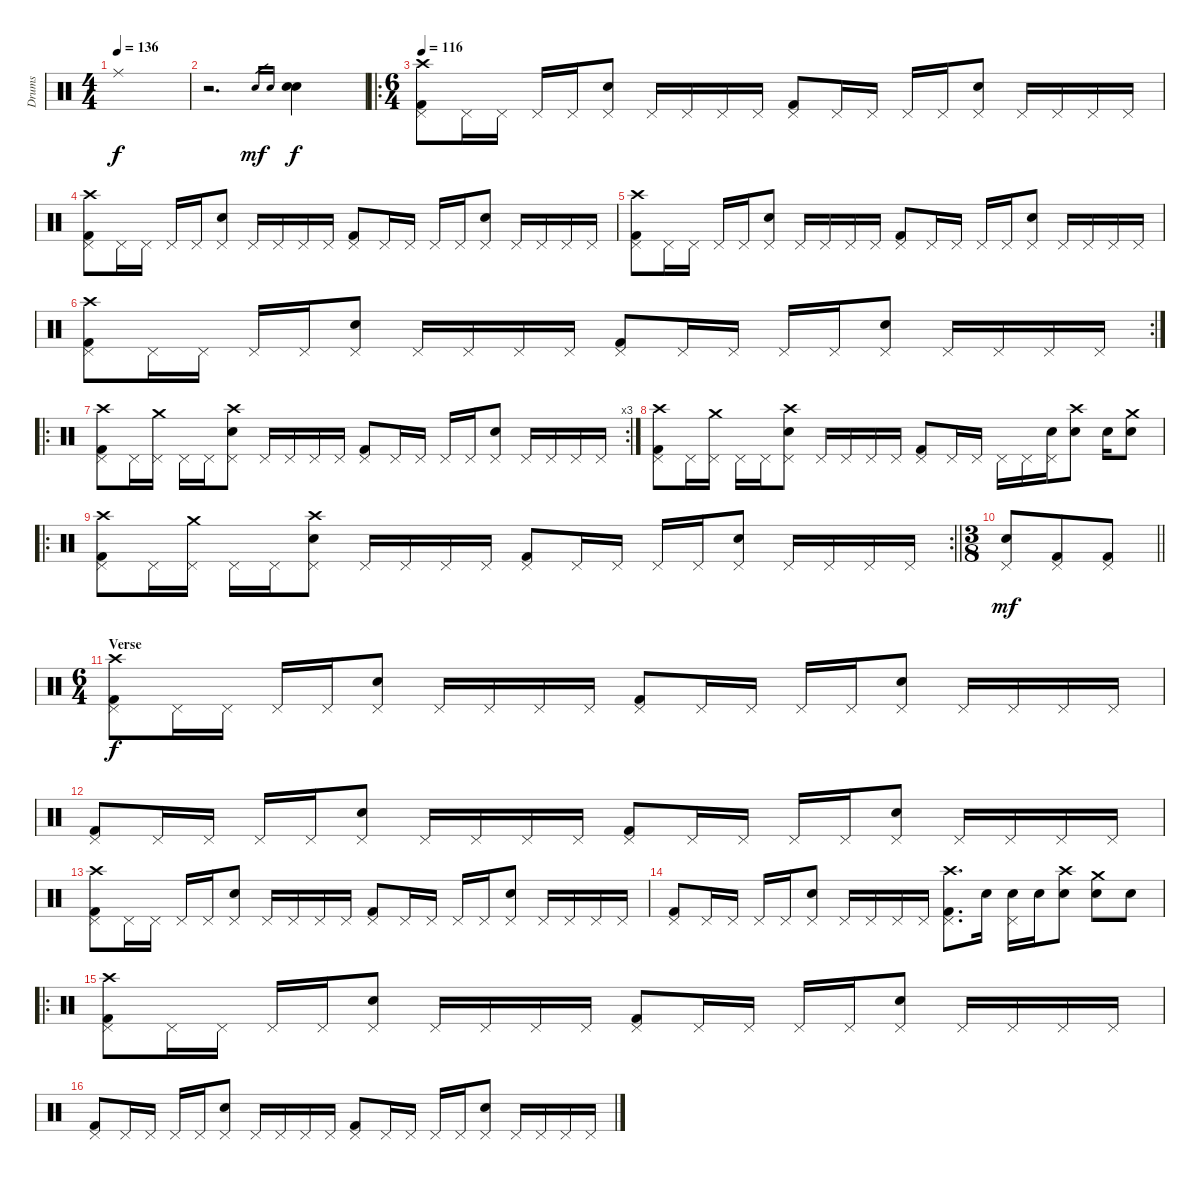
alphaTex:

\track ("Drums" "Drums") {instrument percussion}
\staff {score}
\articulation defaults
\ts (4 4)
\tempo 136
\clef neutral
\ks c "Ride (middle)".1{dy f}
|
r.2{d} "Snare (hit) 2".16{gr dy mf} "Snare (hit) 2".16{gr} ("Snare (hit) 2" "Snare (hit) 2").4{dy f} |
\ro
\ts (6 4)
\tempo 116
("Kick (hit) 2" "Pedal Hi-Hat (hit)" "Crash high (hit)").8 "Pedal Hi-Hat (hit)".16 "Pedal Hi-Hat (hit)".16 "Pedal Hi-Hat (hit)".16 "Pedal Hi-Hat (hit)".16 ("Snare (hit) 2" "Pedal Hi-Hat (hit)").8 "Pedal Hi-Hat (hit)".16 "Pedal Hi-Hat (hit)".16 "Pedal Hi-Hat (hit)".16 "Pedal Hi-Hat (hit)".16 ("Kick (hit) 2" "Pedal Hi-Hat (hit)").8 "Pedal Hi-Hat (hit)".16 "Pedal Hi-Hat (hit)".16 "Pedal Hi-Hat (hit)".16 "Pedal Hi-Hat (hit)".16 ("Snare (hit) 2" "Pedal Hi-Hat (hit)").8 "Pedal Hi-Hat (hit)".16 "Pedal Hi-Hat (hit)".16 "Pedal Hi-Hat (hit)".16 "Pedal Hi-Hat (hit)".16 |
("Kick (hit) 2" "Pedal Hi-Hat (hit)" "Crash high (hit)").8 "Pedal Hi-Hat (hit)".16 "Pedal Hi-Hat (hit)".16 "Pedal Hi-Hat (hit)".16 "Pedal Hi-Hat (hit)".16 ("Snare (hit) 2" "Pedal Hi-Hat (hit)").8 "Pedal Hi-Hat (hit)".16 "Pedal Hi-Hat (hit)".16 "Pedal Hi-Hat (hit)".16 "Pedal Hi-Hat (hit)".16 ("Kick (hit) 2" "Pedal Hi-Hat (hit)").8 "Pedal Hi-Hat (hit)".16 "Pedal Hi-Hat (hit)".16 "Pedal Hi-Hat (hit)".16 "Pedal Hi-Hat (hit)".16 ("Snare (hit) 2" "Pedal Hi-Hat (hit)").8 "Pedal Hi-Hat (hit)".16 "Pedal Hi-Hat (hit)".16 "Pedal Hi-Hat (hit)".16 "Pedal Hi-Hat (hit)".16 |
("Kick (hit) 2" "Pedal Hi-Hat (hit)" "Crash high (hit)").8 "Pedal Hi-Hat (hit)".16 "Pedal Hi-Hat (hit)".16 "Pedal Hi-Hat (hit)".16 "Pedal Hi-Hat (hit)".16 ("Snare (hit) 2" "Pedal Hi-Hat (hit)").8 "Pedal Hi-Hat (hit)".16 "Pedal Hi-Hat (hit)".16 "Pedal Hi-Hat (hit)".16 "Pedal Hi-Hat (hit)".16 ("Kick (hit) 2" "Pedal Hi-Hat (hit)").8 "Pedal Hi-Hat (hit)".16 "Pedal Hi-Hat (hit)".16 "Pedal Hi-Hat (hit)".16 "Pedal Hi-Hat (hit)".16 ("Snare (hit) 2" "Pedal Hi-Hat (hit)").8 "Pedal Hi-Hat (hit)".16 "Pedal Hi-Hat (hit)".16 "Pedal Hi-Hat (hit)".16 "Pedal Hi-Hat (hit)".16 |
\rc 2
("Kick (hit) 2" "Pedal Hi-Hat (hit)" "Crash high (hit)").8 "Pedal Hi-Hat (hit)".16 "Pedal Hi-Hat (hit)".16 "Pedal Hi-Hat (hit)".16 "Pedal Hi-Hat (hit)".16 ("Snare (hit) 2" "Pedal Hi-Hat (hit)").8 "Pedal Hi-Hat (hit)".16 "Pedal Hi-Hat (hit)".16 "Pedal Hi-Hat (hit)".16 "Pedal Hi-Hat (hit)".16 ("Kick (hit) 2" "Pedal Hi-Hat (hit)").8 "Pedal Hi-Hat (hit)".16 "Pedal Hi-Hat (hit)".16 "Pedal Hi-Hat (hit)".16 "Pedal Hi-Hat (hit)".16 ("Snare (hit) 2" "Pedal Hi-Hat (hit)").8 "Pedal Hi-Hat (hit)".16 "Pedal Hi-Hat (hit)".16 "Pedal Hi-Hat (hit)".16 "Pedal Hi-Hat (hit)".16 |
\ro
\rc 3
("Kick (hit) 2" "Pedal Hi-Hat (hit)" "Crash high (hit)").8 "Pedal Hi-Hat (hit)".16 ("Pedal Hi-Hat (hit)" "Crash medium (hit)").16 "Pedal Hi-Hat (hit)".16 "Pedal Hi-Hat (hit)".16 ("Snare (hit) 2" "Pedal Hi-Hat (hit)" "Crash high (hit)").8 "Pedal Hi-Hat (hit)".16 "Pedal Hi-Hat (hit)".16 "Pedal Hi-Hat (hit)".16 "Pedal Hi-Hat (hit)".16 ("Kick (hit) 2" "Pedal Hi-Hat (hit)").8 "Pedal Hi-Hat (hit)".16 "Pedal Hi-Hat (hit)".16 "Pedal Hi-Hat (hit)".16 "Pedal Hi-Hat (hit)".16 ("Snare (hit) 2" "Pedal Hi-Hat (hit)").8 "Pedal Hi-Hat (hit)".16 "Pedal Hi-Hat (hit)".16 "Pedal Hi-Hat (hit)".16 "Pedal Hi-Hat (hit)".16 |
("Kick (hit) 2" "Pedal Hi-Hat (hit)" "Crash high (hit)").8 "Pedal Hi-Hat (hit)".16 ("Pedal Hi-Hat (hit)" "Crash medium (hit)").16 "Pedal Hi-Hat (hit)".16 "Pedal Hi-Hat (hit)".16 ("Snare (hit) 2" "Pedal Hi-Hat (hit)" "Crash high (hit)").8 "Pedal Hi-Hat (hit)".16 "Pedal Hi-Hat (hit)".16 "Pedal Hi-Hat (hit)".16 "Pedal Hi-Hat (hit)".16 ("Kick (hit) 2" "Pedal Hi-Hat (hit)").8 "Pedal Hi-Hat (hit)".16 "Pedal Hi-Hat (hit)".16 "Pedal Hi-Hat (hit)".16 "Pedal Hi-Hat (hit)".16 ("Snare (hit) 2" "Pedal Hi-Hat (hit)").16 ("Snare (hit) 2" "Crash high (hit)").8 "Snare (hit) 2".16 ("Snare (hit) 2" "Crash medium (hit)").8 |
\ro
\rc 2
\barLineRight lightlight
("Kick (hit) 2" "Pedal Hi-Hat (hit)" "Crash high (hit)").8 "Pedal Hi-Hat (hit)".16 ("Pedal Hi-Hat (hit)" "Crash medium (hit)").16 "Pedal Hi-Hat (hit)".16 "Pedal Hi-Hat (hit)".16 ("Snare (hit) 2" "Pedal Hi-Hat (hit)" "Crash high (hit)").8 "Pedal Hi-Hat (hit)".16 "Pedal Hi-Hat (hit)".16 "Pedal Hi-Hat (hit)".16 "Pedal Hi-Hat (hit)".16 ("Kick (hit) 2" "Pedal Hi-Hat (hit)").8 "Pedal Hi-Hat (hit)".16 "Pedal Hi-Hat (hit)".16 "Pedal Hi-Hat (hit)".16 "Pedal Hi-Hat (hit)".16 ("Snare (hit) 2" "Pedal Hi-Hat (hit)").8 "Pedal Hi-Hat (hit)".16 "Pedal Hi-Hat (hit)".16 "Pedal Hi-Hat (hit)".16 "Pedal Hi-Hat (hit)".16 |
\ts (3 8)
\barLineRight lightlight
("Pedal Hi-Hat (hit)" "Snare (hit) 2").8{dy mf} ("Pedal Hi-Hat (hit)" "Kick (hit) 2").8 ("Pedal Hi-Hat (hit)" "Kick (hit) 2").8 |
\ts (6 4)
\section ("" "Verse ")
("Kick (hit) 2" "Pedal Hi-Hat (hit)" "Crash high (hit)").8{dy f} "Pedal Hi-Hat (hit)".16 "Pedal Hi-Hat (hit)".16 "Pedal Hi-Hat (hit)".16 "Pedal Hi-Hat (hit)".16 ("Snare (hit) 2" "Pedal Hi-Hat (hit)").8 "Pedal Hi-Hat (hit)".16 "Pedal Hi-Hat (hit)".16 "Pedal Hi-Hat (hit)".16 "Pedal Hi-Hat (hit)".16 ("Kick (hit) 2" "Pedal Hi-Hat (hit)").8 "Pedal Hi-Hat (hit)".16 "Pedal Hi-Hat (hit)".16 "Pedal Hi-Hat (hit)".16 "Pedal Hi-Hat (hit)".16 ("Snare (hit) 2" "Pedal Hi-Hat (hit)").8 "Pedal Hi-Hat (hit)".16 "Pedal Hi-Hat (hit)".16 "Pedal Hi-Hat (hit)".16 "Pedal Hi-Hat (hit)".16 |
("Kick (hit) 2" "Pedal Hi-Hat (hit)").8 "Pedal Hi-Hat (hit)".16 "Pedal Hi-Hat (hit)".16 "Pedal Hi-Hat (hit)".16 "Pedal Hi-Hat (hit)".16 ("Snare (hit) 2" "Pedal Hi-Hat (hit)").8 "Pedal Hi-Hat (hit)".16 "Pedal Hi-Hat (hit)".16 "Pedal Hi-Hat (hit)".16 "Pedal Hi-Hat (hit)".16 ("Kick (hit) 2" "Pedal Hi-Hat (hit)").8 "Pedal Hi-Hat (hit)".16 "Pedal Hi-Hat (hit)".16 "Pedal Hi-Hat (hit)".16 "Pedal Hi-Hat (hit)".16 ("Snare (hit) 2" "Pedal Hi-Hat (hit)").8 "Pedal Hi-Hat (hit)".16 "Pedal Hi-Hat (hit)".16 "Pedal Hi-Hat (hit)".16 "Pedal Hi-Hat (hit)".16 |
("Kick (hit) 2" "Pedal Hi-Hat (hit)" "Crash high (hit)").8 "Pedal Hi-Hat (hit)".16 "Pedal Hi-Hat (hit)".16 "Pedal Hi-Hat (hit)".16 "Pedal Hi-Hat (hit)".16 ("Snare (hit) 2" "Pedal Hi-Hat (hit)").8 "Pedal Hi-Hat (hit)".16 "Pedal Hi-Hat (hit)".16 "Pedal Hi-Hat (hit)".16 "Pedal Hi-Hat (hit)".16 ("Kick (hit) 2" "Pedal Hi-Hat (hit)").8 "Pedal Hi-Hat (hit)".16 "Pedal Hi-Hat (hit)".16 "Pedal Hi-Hat (hit)".16 "Pedal Hi-Hat (hit)".16 ("Snare (hit) 2" "Pedal Hi-Hat (hit)").8 "Pedal Hi-Hat (hit)".16 "Pedal Hi-Hat (hit)".16 "Pedal Hi-Hat (hit)".16 "Pedal Hi-Hat (hit)".16 |
("Kick (hit) 2" "Pedal Hi-Hat (hit)").8 "Pedal Hi-Hat (hit)".16 "Pedal Hi-Hat (hit)".16 "Pedal Hi-Hat (hit)".16 "Pedal Hi-Hat (hit)".16 ("Snare (hit) 2" "Pedal Hi-Hat (hit)").8 "Pedal Hi-Hat (hit)".16 "Pedal Hi-Hat (hit)".16 "Pedal Hi-Hat (hit)".16 "Pedal Hi-Hat (hit)".16 ("Kick (hit) 2" "Pedal Hi-Hat (hit)" "Crash high (hit)").8{d} "Snare (hit) 2".16 ("Snare (hit) 2" "Pedal Hi-Hat (hit)").16 "Snare (hit) 2".16 ("Snare (hit) 2" "Crash high (hit)").8 ("Snare (hit) 2" "Crash medium (hit)").8 "Snare (hit) 2".8 |
\ro
("Kick (hit) 2" "Pedal Hi-Hat (hit)" "Crash high (hit)").8 "Pedal Hi-Hat (hit)".16 "Pedal Hi-Hat (hit)".16 "Pedal Hi-Hat (hit)".16 "Pedal Hi-Hat (hit)".16 ("Snare (hit) 2" "Pedal Hi-Hat (hit)").8 "Pedal Hi-Hat (hit)".16 "Pedal Hi-Hat (hit)".16 "Pedal Hi-Hat (hit)".16 "Pedal Hi-Hat (hit)".16 ("Kick (hit) 2" "Pedal Hi-Hat (hit)").8 "Pedal Hi-Hat (hit)".16 "Pedal Hi-Hat (hit)".16 "Pedal Hi-Hat (hit)".16 "Pedal Hi-Hat (hit)".16 ("Snare (hit) 2" "Pedal Hi-Hat (hit)").8 "Pedal Hi-Hat (hit)".16 "Pedal Hi-Hat (hit)".16 "Pedal Hi-Hat (hit)".16 "Pedal Hi-Hat (hit)".16 |
("Kick (hit) 2" "Pedal Hi-Hat (hit)").8 "Pedal Hi-Hat (hit)".16 "Pedal Hi-Hat (hit)".16 "Pedal Hi-Hat (hit)".16 "Pedal Hi-Hat (hit)".16 ("Snare (hit) 2" "Pedal Hi-Hat (hit)").8 "Pedal Hi-Hat (hit)".16 "Pedal Hi-Hat (hit)".16 "Pedal Hi-Hat (hit)".16 "Pedal Hi-Hat (hit)".16 ("Kick (hit) 2" "Pedal Hi-Hat (hit)").8 "Pedal Hi-Hat (hit)".16 "Pedal Hi-Hat (hit)".16 "Pedal Hi-Hat (hit)".16 "Pedal Hi-Hat (hit)".16 ("Snare (hit) 2" "Pedal Hi-Hat (hit)").8 "Pedal Hi-Hat (hit)".16 "Pedal Hi-Hat (hit)".16 "Pedal Hi-Hat (hit)".16 "Pedal Hi-Hat (hit)".16
